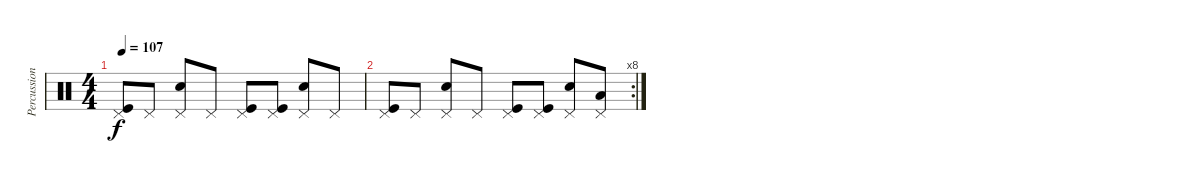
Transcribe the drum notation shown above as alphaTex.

\track ("Percussion" "Percussion") {instrument percussion}
\staff {score}
\articulation defaults
\ts (4 4)
\tempo 107
\clef neutral
\ks c
("Pedal Hi-Hat (hit)" "Kick (hit)").8{dy f} "Pedal Hi-Hat (hit)".8 ("Pedal Hi-Hat (hit)" "Electric Snare (hit)").8 "Pedal Hi-Hat (hit)".8 ("Pedal Hi-Hat (hit)" "Kick (hit)").8 ("Pedal Hi-Hat (hit)" "Kick (hit)").8 ("Pedal Hi-Hat (hit)" "Electric Snare (hit)").8 "Pedal Hi-Hat (hit)".8 |
\rc 8
("Pedal Hi-Hat (hit)" "Kick (hit)").8 "Pedal Hi-Hat (hit)".8 ("Pedal Hi-Hat (hit)" "Electric Snare (hit)").8 "Pedal Hi-Hat (hit)".8 ("Pedal Hi-Hat (hit)" "Kick (hit)").8 ("Pedal Hi-Hat (hit)" "Kick (hit)").8 ("Pedal Hi-Hat (hit)" "Electric Snare (hit)").8 ("Low Tom (hit)" "Pedal Hi-Hat (hit)").8
